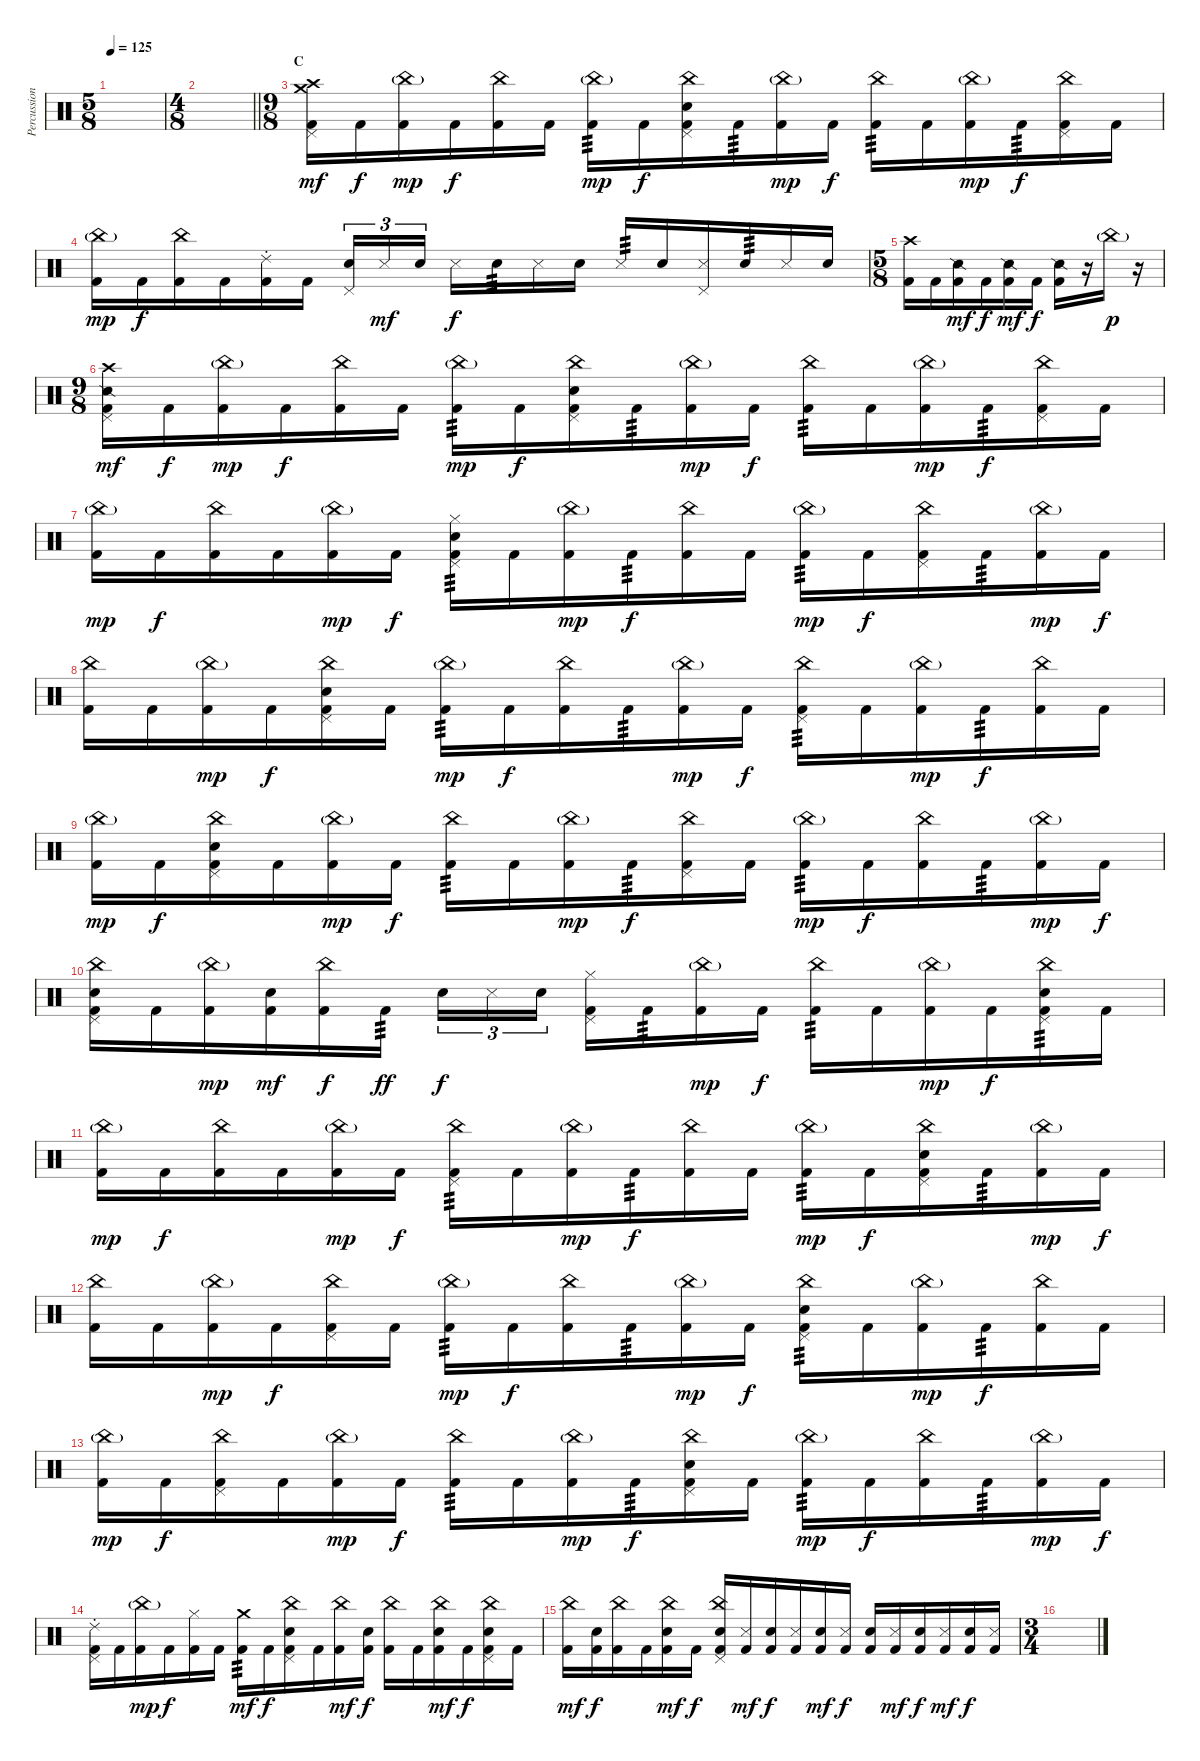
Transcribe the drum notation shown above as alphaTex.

\track ("Percussion" "Percussion") {instrument percussion}
\staff {score}
\articulation defaults
\ts (5 8)
\tempo 125
\clef neutral
\ks c
|
\ts (4 8)
\barLineRight lightlight
|
\ts (9 8)
\section ("" "C")
("Crash medium (hit)" "Crash high (hit)" "Pedal Hi-Hat (hit)" "Kick (hit) 2").16{dy mf} "Kick (hit) 2".16{dy f} ("China (hit)"{g} "Kick (hit) 2").16{dy mp} "Kick (hit) 2".16{dy f} ("China (hit)" "Kick (hit) 2").16 "Kick (hit) 2".16 ("China (hit)"{g} "Kick (hit) 2").16{tp 3 dy mp} "Kick (hit) 2".16{dy f} ("China (hit)" "Pedal Hi-Hat (hit)" "Snare (hit) 2" "Kick (hit) 2").16 "Kick (hit) 2".16{tp 3} ("China (hit)"{g} "Kick (hit) 2").16{dy mp} "Kick (hit) 2".16{dy f} ("China (hit)" "Kick (hit) 2").16{tp 3} "Kick (hit) 2".16 ("China (hit)"{g} "Kick (hit) 2").16{dy mp} "Kick (hit) 2".16{tp 3 dy f} ("China (hit)" "Pedal Hi-Hat (hit)" "Kick (hit) 2").16 "Kick (hit) 2".16 |
("China (hit)"{g} "Kick (hit) 2").16{dy mp} "Kick (hit) 2".16{dy f} ("China (hit)" "Kick (hit) 2").16 "Kick (hit) 2".16 ("Ride (choke) 2" "Kick (hit) 2").16 "Kick (hit) 2".16 ("Pedal Hi-Hat (hit)" "Snare (hit) 2").16{tu (3 2)} "Metronome (hit)".16{tu (3 2) dy mf} "Snare (hit) 2".16{tu (3 2) beam splitsecondary} "Metronome (hit)".16{dy f} "Snare (hit) 2".16{tp 3} "Metronome (hit)".16 "Snare (hit) 2".16 "Metronome (hit)".16{tp 3} "Snare (hit) 2".16 ("Pedal Hi-Hat (hit)" "Metronome (hit)").16 "Snare (hit) 2".16{tp 3} "Metronome (hit)".16 "Snare (hit) 2".16 |
\ts (5 8)
("Crash high (hit)" "Kick (hit) 2").16 "Kick (hit) 2".16 ("Snare (side stick) 2" "Kick (hit) 2").16{dy mf} "Kick (hit) 2".16{dy f} ("Snare (side stick) 2" "Kick (hit) 2").16{dy mf} "Kick (hit) 2".16{dy f} ("Snare (side stick) 2" "Kick (hit) 2").16 r.16 "China (hit)"{g}.16{dy p} r.16 |
\ts (9 8)
("Snare (side stick) 2" "Crash high (hit)" "Pedal Hi-Hat (hit)" "Kick (hit) 2").16{dy mf} "Kick (hit) 2".16{dy f} ("China (hit)"{g} "Kick (hit) 2").16{dy mp} "Kick (hit) 2".16{dy f} ("China (hit)" "Kick (hit) 2").16 "Kick (hit) 2".16 ("China (hit)"{g} "Kick (hit) 2").16{tp 3 dy mp} "Kick (hit) 2".16{dy f} ("China (hit)" "Pedal Hi-Hat (hit)" "Snare (hit) 2" "Kick (hit) 2").16 "Kick (hit) 2".16{tp 3} ("China (hit)"{g} "Kick (hit) 2").16{dy mp} "Kick (hit) 2".16{dy f} ("China (hit)" "Kick (hit) 2").16{tp 3} "Kick (hit) 2".16 ("China (hit)"{g} "Kick (hit) 2").16{dy mp} "Kick (hit) 2".16{tp 3 dy f} ("China (hit)" "Pedal Hi-Hat (hit)" "Kick (hit) 2").16 "Kick (hit) 2".16 |
("China (hit)"{g} "Kick (hit) 2").16{dy mp} "Kick (hit) 2".16{dy f} ("China (hit)" "Kick (hit) 2").16 "Kick (hit) 2".16 ("China (hit)"{g} "Kick (hit) 2").16{dy mp} "Kick (hit) 2".16{dy f} ("Hi-Hat (closed)" "Pedal Hi-Hat (hit)" "Snare (hit) 2" "Kick (hit) 2").16{tp 3} "Kick (hit) 2".16 ("China (hit)"{g} "Kick (hit) 2").16{dy mp} "Kick (hit) 2".16{tp 3 dy f} ("China (hit)" "Kick (hit) 2").16 "Kick (hit) 2".16 ("China (hit)"{g} "Kick (hit) 2").16{tp 3 dy mp} "Kick (hit) 2".16{dy f} ("China (hit)" "Pedal Hi-Hat (hit)" "Kick (hit) 2").16 "Kick (hit) 2".16{tp 3} ("China (hit)"{g} "Kick (hit) 2").16{dy mp} "Kick (hit) 2".16{dy f} |
("China (hit)" "Kick (hit) 2").16 "Kick (hit) 2".16 ("China (hit)"{g} "Kick (hit) 2").16{dy mp} "Kick (hit) 2".16{dy f} ("China (hit)" "Pedal Hi-Hat (hit)" "Snare (hit) 2" "Kick (hit) 2").16 "Kick (hit) 2".16 ("China (hit)"{g} "Kick (hit) 2").16{tp 3 dy mp} "Kick (hit) 2".16{dy f} ("China (hit)" "Kick (hit) 2").16 "Kick (hit) 2".16{tp 3} ("China (hit)"{g} "Kick (hit) 2").16{dy mp} "Kick (hit) 2".16{dy f} ("China (hit)" "Pedal Hi-Hat (hit)" "Kick (hit) 2").16{tp 3} "Kick (hit) 2".16 ("China (hit)"{g} "Kick (hit) 2").16{dy mp} "Kick (hit) 2".16{tp 3 dy f} ("China (hit)" "Kick (hit) 2").16 "Kick (hit) 2".16 |
("China (hit)"{g} "Kick (hit) 2").16{dy mp} "Kick (hit) 2".16{dy f} ("China (hit)" "Pedal Hi-Hat (hit)" "Snare (hit) 2" "Kick (hit) 2").16 "Kick (hit) 2".16 ("China (hit)"{g} "Kick (hit) 2").16{dy mp} "Kick (hit) 2".16{dy f} ("China (hit)" "Kick (hit) 2").16{tp 3} "Kick (hit) 2".16 ("China (hit)"{g} "Kick (hit) 2").16{dy mp} "Kick (hit) 2".16{tp 3 dy f} ("China (hit)" "Pedal Hi-Hat (hit)" "Kick (hit) 2").16 "Kick (hit) 2".16 ("China (hit)"{g} "Kick (hit) 2").16{tp 3 dy mp} "Kick (hit) 2".16{dy f} ("China (hit)" "Kick (hit) 2").16 "Kick (hit) 2".16{tp 3} ("China (hit)"{g} "Kick (hit) 2").16{dy mp} "Kick (hit) 2".16{dy f} |
("China (hit)" "Pedal Hi-Hat (hit)" "Snare (hit) 2" "Kick (hit) 2").16 "Kick (hit) 2".16 ("China (hit)"{g} "Kick (hit) 2").16{dy mp} ("Snare (hit) 2" "Kick (hit) 2").16{dy mf} ("China (hit)" "Kick (hit) 2").16{dy f} "Kick (hit) 2".16{tp 3 dy ff} "Snare (hit) 2".16{tu (3 2) dy f} "Metronome (hit)".16{tu (3 2)} "Snare (hit) 2".16{tu (3 2) beam splitsecondary} ("Hi-Hat (closed)" "Pedal Hi-Hat (hit)" "Kick (hit) 2").16 "Kick (hit) 2".16{tp 3} ("China (hit)"{g} "Kick (hit) 2").16{dy mp} "Kick (hit) 2".16{dy f} ("China (hit)" "Kick (hit) 2").16{tp 3} "Kick (hit) 2".16 ("China (hit)"{g} "Kick (hit) 2").16{dy mp} "Kick (hit) 2".16{dy f} ("China (hit)" "Pedal Hi-Hat (hit)" "Snare (hit) 2" "Kick (hit) 2").16{tp 3} "Kick (hit) 2".16 |
("China (hit)"{g} "Kick (hit) 2").16{dy mp} "Kick (hit) 2".16{dy f} ("China (hit)" "Kick (hit) 2").16 "Kick (hit) 2".16 ("China (hit)"{g} "Kick (hit) 2").16{dy mp} "Kick (hit) 2".16{dy f} ("China (hit)" "Pedal Hi-Hat (hit)" "Kick (hit) 2").16{tp 3} "Kick (hit) 2".16 ("China (hit)"{g} "Kick (hit) 2").16{dy mp} "Kick (hit) 2".16{tp 3 dy f} ("China (hit)" "Kick (hit) 2").16 "Kick (hit) 2".16 ("China (hit)"{g} "Kick (hit) 2").16{tp 3 dy mp} "Kick (hit) 2".16{dy f} ("China (hit)" "Pedal Hi-Hat (hit)" "Snare (hit) 2" "Kick (hit) 2").16 "Kick (hit) 2".16{tp 3} ("China (hit)"{g} "Kick (hit) 2").16{dy mp} "Kick (hit) 2".16{dy f} |
("China (hit)" "Kick (hit) 2").16 "Kick (hit) 2".16 ("China (hit)"{g} "Kick (hit) 2").16{dy mp} "Kick (hit) 2".16{dy f} ("China (hit)" "Pedal Hi-Hat (hit)" "Kick (hit) 2").16 "Kick (hit) 2".16 ("China (hit)"{g} "Kick (hit) 2").16{tp 3 dy mp} "Kick (hit) 2".16{dy f} ("China (hit)" "Kick (hit) 2").16 "Kick (hit) 2".16{tp 3} ("China (hit)"{g} "Kick (hit) 2").16{dy mp} "Kick (hit) 2".16{dy f} ("China (hit)" "Pedal Hi-Hat (hit)" "Snare (hit) 2" "Kick (hit) 2").16{tp 3} "Kick (hit) 2".16 ("China (hit)"{g} "Kick (hit) 2").16{dy mp} "Kick (hit) 2".16{tp 3 dy f} ("China (hit)" "Kick (hit) 2").16 "Kick (hit) 2".16 |
("China (hit)"{g} "Kick (hit) 2").16{dy mp} "Kick (hit) 2".16{dy f} ("China (hit)" "Pedal Hi-Hat (hit)" "Kick (hit) 2").16 "Kick (hit) 2".16 ("China (hit)"{g} "Kick (hit) 2").16{dy mp} "Kick (hit) 2".16{dy f} ("China (hit)" "Kick (hit) 2").16{tp 3} "Kick (hit) 2".16 ("China (hit)"{g} "Kick (hit) 2").16{dy mp} "Kick (hit) 2".16{tp 3 dy f} ("China (hit)" "Pedal Hi-Hat (hit)" "Snare (hit) 2" "Kick (hit) 2").16 "Kick (hit) 2".16 ("China (hit)"{g} "Kick (hit) 2").16{tp 3 dy mp} "Kick (hit) 2".16{dy f} ("China (hit)" "Kick (hit) 2").16 "Kick (hit) 2".16{tp 3} ("China (hit)"{g} "Kick (hit) 2").16{dy mp} "Kick (hit) 2".16{dy f} |
("Ride (choke) 2" "Pedal Hi-Hat (hit)" "Kick (hit) 2").16 "Kick (hit) 2".16 ("China (hit)"{g} "Kick (hit) 2").16{dy mp} "Kick (hit) 2".16{dy f} ("Hi-Hat (closed)" "Kick (hit) 2").16 "Kick (hit) 2".16 ("Crash medium (hit)" "Kick (hit) 2").16{tp 3 dy mf} "Kick (hit) 2".16{dy f} ("China (hit)" "Pedal Hi-Hat (hit)" "Snare (hit) 2" "Kick (hit) 2").16 "Kick (hit) 2".16 ("China (hit)" "Kick (hit) 2").16{dy mf} ("Snare (hit) 2" "Kick (hit) 2").16{dy f} ("China (hit)" "Kick (hit) 2").16 "Kick (hit) 2".16 ("China (hit)" "Snare (hit) 2" "Kick (hit) 2").16{dy mf} "Kick (hit) 2".16{dy f} ("China (hit)" "Pedal Hi-Hat (hit)" "Snare (hit) 2" "Kick (hit) 2").16 "Kick (hit) 2".16 |
("China (hit)" "Kick (hit) 2").16{dy mf} ("Snare (hit) 2" "Kick (hit) 2").16{dy f} ("China (hit)" "Kick (hit) 2").16 "Kick (hit) 2".16 ("China (hit)" "Snare (hit) 2" "Kick (hit) 2").16{dy mf} "Kick (hit) 2".16{dy f} ("China (hit)" "Pedal Hi-Hat (hit)" "Snare (hit) 2" "Kick (hit) 2").16 ("Metronome (hit)" "Kick (hit) 2").16{dy mf} ("Snare (hit) 2" "Kick (hit) 2").16{dy f} ("Metronome (hit)" "Kick (hit) 2").16 ("Snare (hit) 2" "Kick (hit) 2").16{dy mf} ("Metronome (hit)" "Kick (hit) 2").16{dy f} ("Snare (hit) 2" "Kick (hit) 2").16 ("Metronome (hit)" "Kick (hit) 2").16{dy mf} ("Snare (hit) 2" "Kick (hit) 2").16{dy f} ("Metronome (hit)" "Kick (hit) 2").16{dy mf} ("Snare (hit) 2" "Kick (hit) 2").16{dy f} ("Metronome (hit)" "Kick (hit) 2").16 |
\ts (3 4)
